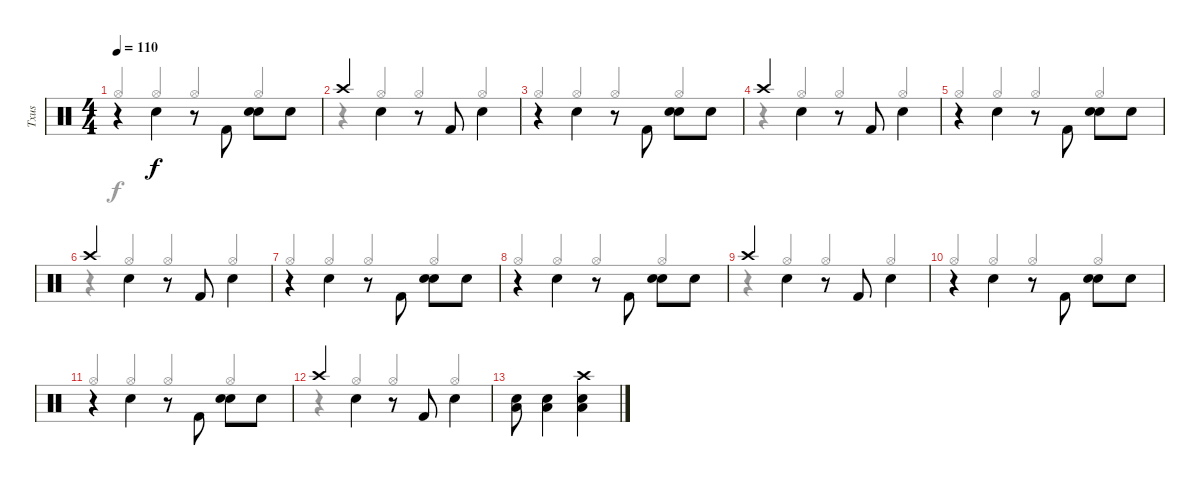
\track ("Txus" "Txus") {instrument percussion}
\staff {score}
\articulation defaults
\voice
\ts (4 4)
\tempo 110
\clef neutral
\ks c
r.4{dy f} "Snare (hit) 2".4{beam Down} r.8 "Kick (hit) 2".8{beam Down} ("Snare (hit) 2" "Snare (hit) 2").8{beam Down} "Snare (hit) 2".8 |
"Crash high (hit)".4 "Snare (hit) 2".4{beam Down} r.8 "Kick (hit) 2".8 "Snare (hit) 2".4{beam Down} |
r.4 "Snare (hit) 2".4{beam Down} r.8 "Kick (hit) 2".8{beam Down} ("Snare (hit) 2" "Snare (hit) 2").8{beam Down} "Snare (hit) 2".8 |
"Crash high (hit)".4 "Snare (hit) 2".4{beam Down} r.8 "Kick (hit) 2".8 "Snare (hit) 2".4{beam Down} |
r.4 "Snare (hit) 2".4{beam Down} r.8 "Kick (hit) 2".8{beam Down} ("Snare (hit) 2" "Snare (hit) 2").8{beam Down} "Snare (hit) 2".8 |
"Crash high (hit)".4 "Snare (hit) 2".4{beam Down} r.8 "Kick (hit) 2".8 "Snare (hit) 2".4{beam Down} |
r.4 "Snare (hit) 2".4{beam Down} r.8 "Kick (hit) 2".8{beam Down} ("Snare (hit) 2" "Snare (hit) 2").8{beam Down} "Snare (hit) 2".8 |
r.4 "Snare (hit) 2".4{beam Down} r.8 "Kick (hit) 2".8{beam Down} ("Snare (hit) 2" "Snare (hit) 2").8{beam Down} "Snare (hit) 2".8 |
"Crash high (hit)".4 "Snare (hit) 2".4{beam Down} r.8 "Kick (hit) 2".8 "Snare (hit) 2".4{beam Down} |
r.4 "Snare (hit) 2".4{beam Down} r.8 "Kick (hit) 2".8{beam Down} ("Snare (hit) 2" "Snare (hit) 2").8{beam Down} "Snare (hit) 2".8 |
r.4 "Snare (hit) 2".4{beam Down} r.8 "Kick (hit) 2".8{beam Down} ("Snare (hit) 2" "Snare (hit) 2").8{beam Down} "Snare (hit) 2".8 |
"Crash high (hit)".4 "Snare (hit) 2".4{beam Down} r.8 "Kick (hit) 2".8 "Snare (hit) 2".4{beam Down} |
("Snare (hit) 2" "Low Floor Tom (hit)").8 ("Snare (hit) 2" "Low Floor Tom (hit)").4 ("Crash high (hit)" "Snare (hit) 2" "Low Floor Tom (hit)").4 |
|
|
\voice
\clef neutral
\ottava regular
\simile none
\ks c "Hi-Hat (open)".4{dy f beam Up} "Hi-Hat (open)".4{beam Up} "Hi-Hat (open)".4{beam Up} "Hi-Hat (open)".4{beam Up}
|
r.4{beam Up} "Hi-Hat (open)".4{beam Up} "Hi-Hat (open)".4{beam Up} "Hi-Hat (open)".4{beam Up} |
"Hi-Hat (open)".4{beam Up} "Hi-Hat (open)".4{beam Up} "Hi-Hat (open)".4{beam Up} "Hi-Hat (open)".4{beam Up} |
r.4{beam Up} "Hi-Hat (open)".4{beam Up} "Hi-Hat (open)".4{beam Up} "Hi-Hat (open)".4{beam Up} |
"Hi-Hat (open)".4{beam Up} "Hi-Hat (open)".4{beam Up} "Hi-Hat (open)".4{beam Up} "Hi-Hat (open)".4{beam Up} |
r.4{beam Up} "Hi-Hat (open)".4{beam Up} "Hi-Hat (open)".4{beam Up} "Hi-Hat (open)".4{beam Up} |
"Hi-Hat (open)".4{beam Up} "Hi-Hat (open)".4{beam Up} "Hi-Hat (open)".4{beam Up} "Hi-Hat (open)".4{beam Up} |
"Hi-Hat (open)".4{beam Up} "Hi-Hat (open)".4{beam Up} "Hi-Hat (open)".4{beam Up} "Hi-Hat (open)".4{beam Up} |
r.4{beam Up} "Hi-Hat (open)".4{beam Up} "Hi-Hat (open)".4{beam Up} "Hi-Hat (open)".4{beam Up} |
"Hi-Hat (open)".4{beam Up} "Hi-Hat (open)".4{beam Up} "Hi-Hat (open)".4{beam Up} "Hi-Hat (open)".4{beam Up} |
"Hi-Hat (open)".4{beam Up} "Hi-Hat (open)".4{beam Up} "Hi-Hat (open)".4{beam Up} "Hi-Hat (open)".4{beam Up} |
r.4{beam Up} "Hi-Hat (open)".4{beam Up} "Hi-Hat (open)".4{beam Up} "Hi-Hat (open)".4{beam Up} |
|
|
|
